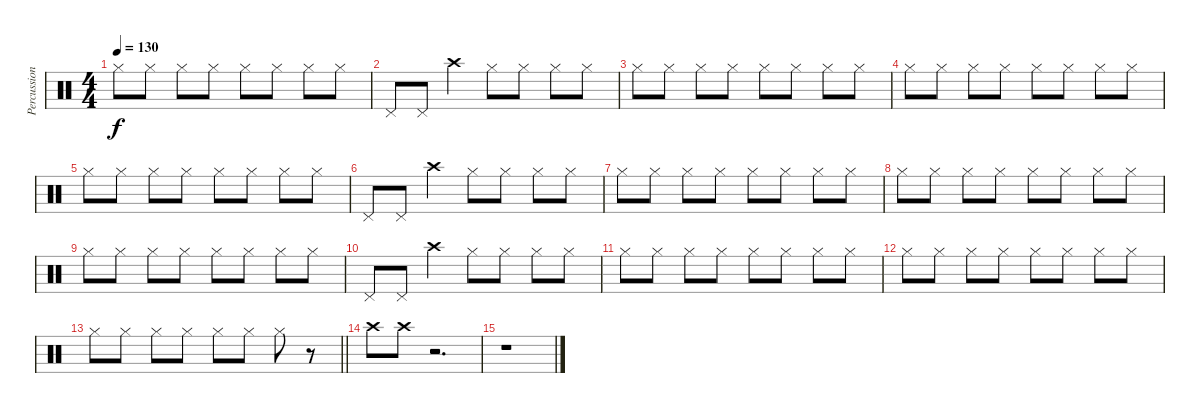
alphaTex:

\track ("Percussion 2" "Percussion") {instrument percussion}
\staff {score}
\articulation defaults
\ts (4 4)
\tempo 130
\clef neutral
\ks c "Hi-Hat (closed)".8{dy f} "Hi-Hat (closed)".8 "Hi-Hat (closed)".8 "Hi-Hat (closed)".8 "Hi-Hat (closed)".8 "Hi-Hat (closed)".8 "Hi-Hat (closed)".8 "Hi-Hat (closed)".8
|
"Pedal Hi-Hat (hit)".8 "Pedal Hi-Hat (hit)".8 "Crash high (hit)".4 "Hi-Hat (closed)".8 "Hi-Hat (closed)".8 "Hi-Hat (closed)".8 "Hi-Hat (closed)".8 |
"Hi-Hat (closed)".8 "Hi-Hat (closed)".8 "Hi-Hat (closed)".8 "Hi-Hat (closed)".8 "Hi-Hat (closed)".8 "Hi-Hat (closed)".8 "Hi-Hat (closed)".8 "Hi-Hat (closed)".8 |
"Hi-Hat (closed)".8 "Hi-Hat (closed)".8 "Hi-Hat (closed)".8 "Hi-Hat (closed)".8 "Hi-Hat (closed)".8 "Hi-Hat (closed)".8 "Hi-Hat (closed)".8 "Hi-Hat (closed)".8 |
"Hi-Hat (closed)".8 "Hi-Hat (closed)".8 "Hi-Hat (closed)".8 "Hi-Hat (closed)".8 "Hi-Hat (closed)".8 "Hi-Hat (closed)".8 "Hi-Hat (closed)".8 "Hi-Hat (closed)".8 |
"Pedal Hi-Hat (hit)".8 "Pedal Hi-Hat (hit)".8 "Crash high (hit)".4 "Hi-Hat (closed)".8 "Hi-Hat (closed)".8 "Hi-Hat (closed)".8 "Hi-Hat (closed)".8 |
"Hi-Hat (closed)".8 "Hi-Hat (closed)".8 "Hi-Hat (closed)".8 "Hi-Hat (closed)".8 "Hi-Hat (closed)".8 "Hi-Hat (closed)".8 "Hi-Hat (closed)".8 "Hi-Hat (closed)".8 |
"Hi-Hat (closed)".8 "Hi-Hat (closed)".8 "Hi-Hat (closed)".8 "Hi-Hat (closed)".8 "Hi-Hat (closed)".8 "Hi-Hat (closed)".8 "Hi-Hat (closed)".8 "Hi-Hat (closed)".8 |
"Hi-Hat (closed)".8 "Hi-Hat (closed)".8 "Hi-Hat (closed)".8 "Hi-Hat (closed)".8 "Hi-Hat (closed)".8 "Hi-Hat (closed)".8 "Hi-Hat (closed)".8 "Hi-Hat (closed)".8 |
"Pedal Hi-Hat (hit)".8 "Pedal Hi-Hat (hit)".8 "Crash high (hit)".4 "Hi-Hat (closed)".8 "Hi-Hat (closed)".8 "Hi-Hat (closed)".8 "Hi-Hat (closed)".8 |
"Hi-Hat (closed)".8 "Hi-Hat (closed)".8 "Hi-Hat (closed)".8 "Hi-Hat (closed)".8 "Hi-Hat (closed)".8 "Hi-Hat (closed)".8 "Hi-Hat (closed)".8 "Hi-Hat (closed)".8 |
"Hi-Hat (closed)".8 "Hi-Hat (closed)".8 "Hi-Hat (closed)".8 "Hi-Hat (closed)".8 "Hi-Hat (closed)".8 "Hi-Hat (closed)".8 "Hi-Hat (closed)".8 "Hi-Hat (closed)".8 |
\barLineRight lightlight "Hi-Hat (closed)".8 "Hi-Hat (closed)".8 "Hi-Hat (closed)".8 "Hi-Hat (closed)".8 "Hi-Hat (closed)".8 "Hi-Hat (closed)".8 "Hi-Hat (closed)".8
r.8 |
"Crash high (hit)".8 "Crash high (hit)".8 r.2{d} |
r.1
